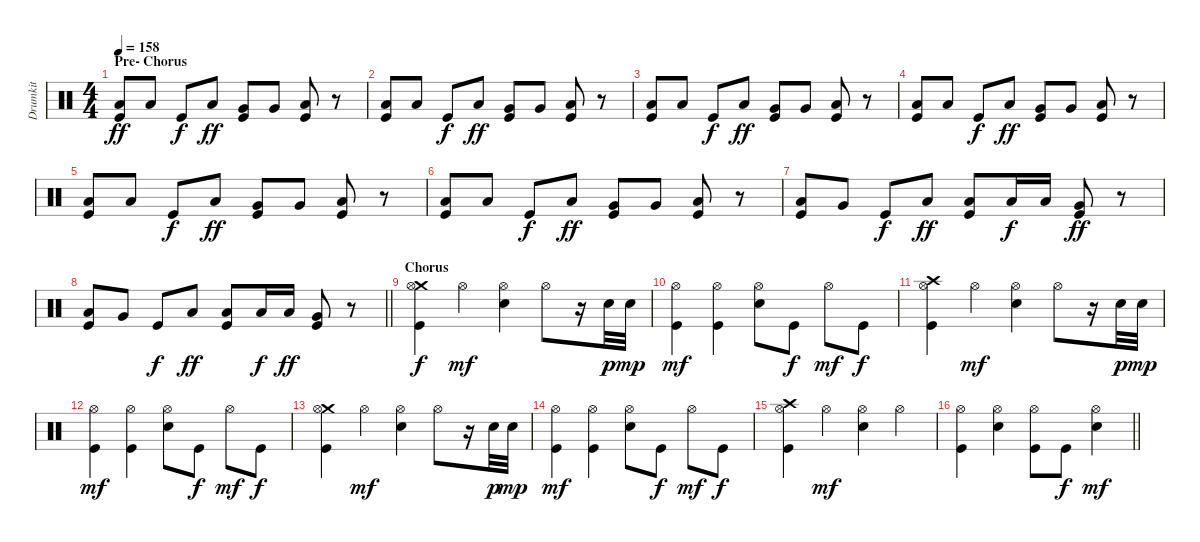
\track ("Drumkit" "Drumkit") {instrument percussion}
\staff {score}
\articulation defaults
\ts (4 4)
\section ("" "Pre- Chorus")
\tempo 158
\clef neutral
\ks c
("Low Floor Tom (hit)" "Kick (hit)").8{dy ff} "Low Floor Tom (hit)".8 "Kick (hit)".8{dy f} "Low Tom (hit)".8{dy ff} ("Very Low Tom (hit)" "Kick (hit)").8 "Very Low Tom (hit)".8 ("Low Floor Tom (hit)" "Kick (hit)").8 r.8 |
("Low Floor Tom (hit)" "Kick (hit)").8 "Low Floor Tom (hit)".8 "Kick (hit)".8{dy f} "Low Tom (hit)".8{dy ff} ("Very Low Tom (hit)" "Kick (hit)").8 "Very Low Tom (hit)".8 ("Low Floor Tom (hit)" "Kick (hit)").8 r.8 |
("Low Floor Tom (hit)" "Kick (hit)").8 "Low Floor Tom (hit)".8 "Kick (hit)".8{dy f} "Low Tom (hit)".8{dy ff} ("Very Low Tom (hit)" "Kick (hit)").8 "Very Low Tom (hit)".8 ("Low Floor Tom (hit)" "Kick (hit)").8 r.8 |
("Low Floor Tom (hit)" "Kick (hit)").8 "Low Floor Tom (hit)".8 "Kick (hit)".8{dy f} "Low Tom (hit)".8{dy ff} ("Very Low Tom (hit)" "Kick (hit)").8 "Very Low Tom (hit)".8 ("Low Floor Tom (hit)" "Kick (hit)").8 r.8 |
("Low Floor Tom (hit)" "Kick (hit)").8 "Low Floor Tom (hit)".8 "Kick (hit)".8{dy f} "Low Tom (hit)".8{dy ff} ("Very Low Tom (hit)" "Kick (hit)").8 "Very Low Tom (hit)".8 ("Low Floor Tom (hit)" "Kick (hit)").8 r.8 |
("Low Floor Tom (hit)" "Kick (hit)").8 "Low Floor Tom (hit)".8 "Kick (hit)".8{dy f} "Low Tom (hit)".8{dy ff} ("Very Low Tom (hit)" "Kick (hit)").8 "Very Low Tom (hit)".8 ("Low Floor Tom (hit)" "Kick (hit)").8 r.8 |
("Low Floor Tom (hit)" "Kick (hit)").8 "Very Low Tom (hit)".8 "Kick (hit)".8{dy f} "Low Tom (hit)".8{dy ff} ("Low Floor Tom (hit)" "Kick (hit)").8 "Low Floor Tom (hit)".16{dy f} "Low Floor Tom (hit)".16 ("Very Low Tom (hit)" "Kick (hit)").8{dy ff} r.8 |
\barLineRight lightlight
("Low Floor Tom (hit)" "Kick (hit)").8 "Very Low Tom (hit)".8 "Kick (hit)".8{dy f} "Low Tom (hit)".8{dy ff} ("Low Floor Tom (hit)" "Kick (hit)").8 "Low Floor Tom (hit)".16{dy f} "Low Floor Tom (hit)".16{dy ff} ("Very Low Tom (hit)" "Kick (hit)").8 r.8 |
\section ("" "Chorus")
("Crash medium (hit)" "Hi-Hat (open)" "Kick (hit)").4{dy f} "Hi-Hat (open)".4{dy mf} ("Hi-Hat (open)" "Snare (hit) 2").4 "Hi-Hat (open)".8 r.16 "Snare (hit) 2".32{dy p} "Snare (hit) 2".32{dy mp} |
("Hi-Hat (open)" "Kick (hit)").4{dy mf} ("Hi-Hat (open)" "Kick (hit)").4 ("Hi-Hat (open)" "Snare (hit) 2").8 "Kick (hit)".8{dy f} "Hi-Hat (open)".8{dy mf} "Kick (hit)".8{dy f} |
("Crash high (hit)" "Hi-Hat (open)" "Kick (hit)").4 "Hi-Hat (open)".4{dy mf} ("Hi-Hat (open)" "Snare (hit) 2").4 "Hi-Hat (open)".8 r.16 "Snare (hit) 2".32{dy p} "Snare (hit) 2".32{dy mp} |
("Hi-Hat (open)" "Kick (hit)").4{dy mf} ("Hi-Hat (open)" "Kick (hit)").4 ("Hi-Hat (open)" "Snare (hit) 2").8 "Kick (hit)".8{dy f} "Hi-Hat (open)".8{dy mf} "Kick (hit)".8{dy f} |
("Crash medium (hit)" "Hi-Hat (open)" "Kick (hit)").4 "Hi-Hat (open)".4{dy mf} ("Hi-Hat (open)" "Snare (hit) 2").4 "Hi-Hat (open)".8 r.16 "Snare (hit) 2".32{dy p} "Snare (hit) 2".32{dy mp} |
("Hi-Hat (open)" "Kick (hit)").4{dy mf} ("Hi-Hat (open)" "Kick (hit)").4 ("Hi-Hat (open)" "Snare (hit) 2").8 "Kick (hit)".8{dy f} "Hi-Hat (open)".8{dy mf} "Kick (hit)".8{dy f} |
("Crash high (hit)" "Hi-Hat (open)" "Kick (hit)").4 "Hi-Hat (open)".4{dy mf} ("Hi-Hat (open)" "Snare (hit) 2").4 "Hi-Hat (open)".4 |
\barLineRight lightlight
("Hi-Hat (open)" "Kick (hit)").4 ("Hi-Hat (open)" "Snare (hit) 2").4 ("Hi-Hat (open)" "Kick (hit)").8 "Kick (hit)".8{dy f} ("Hi-Hat (open)" "Snare (hit) 2").4{dy mf}
